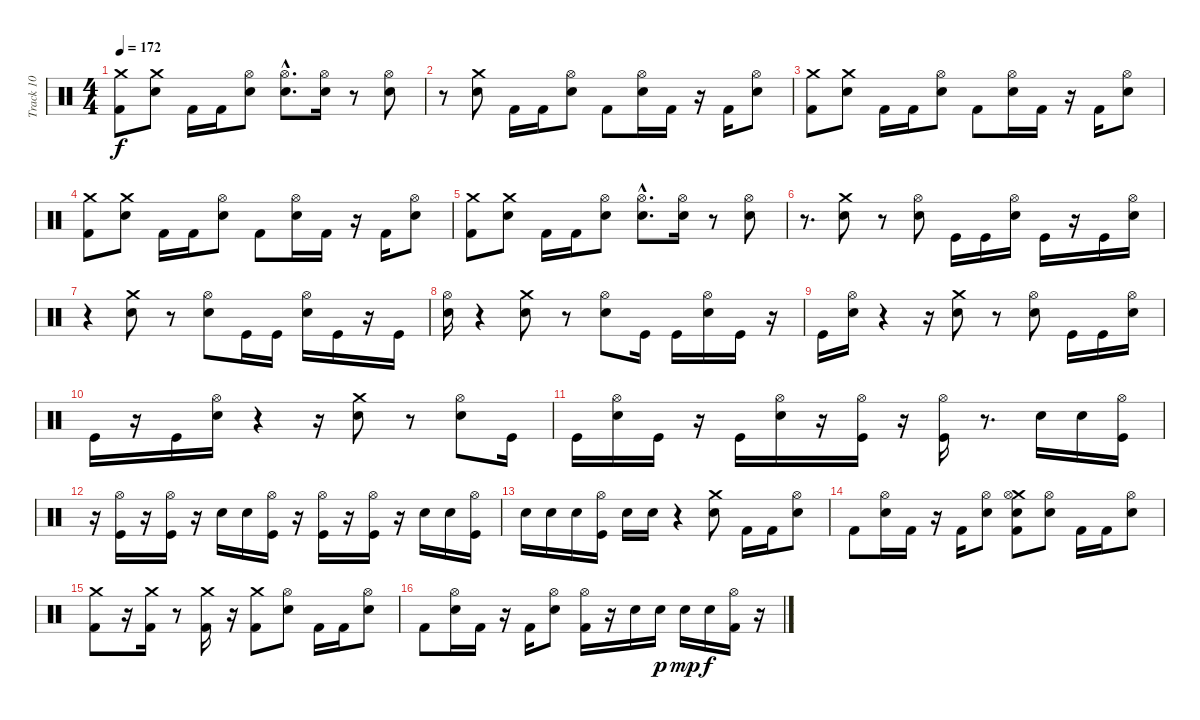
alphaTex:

\track ("Track 10" "Track 10") {instrument percussion}
\staff {score}
\articulation defaults
\ts (4 4)
\tempo 172
\clef neutral
\ks c
("Crash medium (hit)" "Kick (hit) 2").8{dy f} ("Crash medium (hit)" "Electric Snare (hit)").8 "Kick (hit) 2".16 "Kick (hit) 2".16 ("Hi-Hat (open)" "Electric Snare (hit)").8 ("Hi-Hat (open)" "Electric Snare (hit)"{hac}).8{d} ("Hi-Hat (open)" "Electric Snare (hit)").16 r.8 ("Hi-Hat (open)" "Electric Snare (hit)").8 |
r.8 ("Crash medium (hit)" "Electric Snare (hit)").8 "Kick (hit) 2".16 "Kick (hit) 2".16 ("Hi-Hat (open)" "Electric Snare (hit)").8 "Kick (hit) 2".8 ("Hi-Hat (open)" "Electric Snare (hit)").16 "Kick (hit) 2".16 r.16 "Kick (hit) 2".16 ("Hi-Hat (open)" "Electric Snare (hit)").8 |
("Crash medium (hit)" "Kick (hit) 2").8 ("Crash medium (hit)" "Electric Snare (hit)").8 "Kick (hit) 2".16 "Kick (hit) 2".16 ("Hi-Hat (open)" "Electric Snare (hit)").8 "Kick (hit) 2".8 ("Hi-Hat (open)" "Electric Snare (hit)").16 "Kick (hit) 2".16 r.16 "Kick (hit) 2".16 ("Hi-Hat (open)" "Electric Snare (hit)").8 |
("Crash medium (hit)" "Kick (hit) 2").8 ("Crash medium (hit)" "Electric Snare (hit)").8 "Kick (hit) 2".16 "Kick (hit) 2".16 ("Hi-Hat (open)" "Electric Snare (hit)").8 "Kick (hit) 2".8 ("Hi-Hat (open)" "Electric Snare (hit)").16 "Kick (hit) 2".16 r.16 "Kick (hit) 2".16 ("Hi-Hat (open)" "Electric Snare (hit)").8 |
("Crash medium (hit)" "Kick (hit) 2").8 ("Crash medium (hit)" "Electric Snare (hit)").8 "Kick (hit) 2".16 "Kick (hit) 2".16 ("Hi-Hat (open)" "Electric Snare (hit)").8 ("Hi-Hat (open)" "Electric Snare (hit)"{hac}).8{d} ("Hi-Hat (open)" "Electric Snare (hit)").16 r.8 ("Hi-Hat (open)" "Electric Snare (hit)").8 |
r.8{d} ("Crash medium (hit)" "Electric Snare (hit)").8 r.8 ("Hi-Hat (open)" "Electric Snare (hit)").8 "Kick (hit)".16 "Kick (hit)".16 ("Hi-Hat (open)" "Electric Snare (hit)").16 "Kick (hit)".16 r.16 "Kick (hit)".16 ("Hi-Hat (open)" "Electric Snare (hit)").16 |
r.4 ("Crash medium (hit)" "Electric Snare (hit)").8 r.8 ("Hi-Hat (open)" "Electric Snare (hit)").8 "Kick (hit)".16 "Kick (hit)".16 ("Hi-Hat (open)" "Electric Snare (hit)").16 "Kick (hit)".16 r.16 "Kick (hit)".16 |
("Hi-Hat (open)" "Electric Snare (hit)").16 r.4 ("Crash medium (hit)" "Electric Snare (hit)").8 r.8 ("Hi-Hat (open)" "Electric Snare (hit)").8 "Kick (hit)".16 "Kick (hit)".16 ("Hi-Hat (open)" "Electric Snare (hit)").16 "Kick (hit)".16 r.16 |
"Kick (hit)".16 ("Hi-Hat (open)" "Electric Snare (hit)").16 r.4 r.16 ("Crash medium (hit)" "Electric Snare (hit)").8 r.8 ("Hi-Hat (open)" "Electric Snare (hit)").8 "Kick (hit)".16 "Kick (hit)".16 ("Hi-Hat (open)" "Electric Snare (hit)").16 |
"Kick (hit)".16 r.16 "Kick (hit)".16 ("Hi-Hat (open)" "Electric Snare (hit)").16 r.4 r.16 ("Crash medium (hit)" "Electric Snare (hit)").8 r.8 ("Hi-Hat (open)" "Electric Snare (hit)").8 "Kick (hit)".16 |
"Kick (hit)".16 ("Hi-Hat (open)" "Electric Snare (hit)").16 "Kick (hit)".16 r.16 "Kick (hit)".16 ("Hi-Hat (open)" "Electric Snare (hit)").16 r.16 ("Hi-Hat (open)" "Kick (hit)").16 r.16 ("Hi-Hat (open)" "Kick (hit)").16 r.8{d} "Electric Snare (hit)".16 "Electric Snare (hit)".16 ("Hi-Hat (open)" "Kick (hit)").16 |
r.16 ("Hi-Hat (open)" "Kick (hit)").16 r.16 ("Hi-Hat (open)" "Kick (hit)").16 r.16 "Electric Snare (hit)".16 "Electric Snare (hit)".16 ("Hi-Hat (open)" "Kick (hit)").16 r.16 ("Hi-Hat (open)" "Kick (hit)").16 r.16 ("Hi-Hat (open)" "Kick (hit)").16 r.16 "Electric Snare (hit)".16 "Electric Snare (hit)".16 ("Hi-Hat (open)" "Kick (hit)").16 |
"Electric Snare (hit)".16 "Electric Snare (hit)".16 "Electric Snare (hit)".16 ("Hi-Hat (open)" "Kick (hit)").16 "Electric Snare (hit)".16 "Electric Snare (hit)".16 r.4 ("Crash medium (hit)" "Electric Snare (hit)").8 "Kick (hit) 2".16 "Kick (hit) 2".16 ("Hi-Hat (open)" "Electric Snare (hit)").8 |
"Kick (hit) 2".8 ("Hi-Hat (open)" "Electric Snare (hit)").16 "Kick (hit) 2".16 r.16 "Kick (hit) 2".16 ("Hi-Hat (open)" "Electric Snare (hit)").8 ("Crash medium (hit)" "Kick (hit) 2" "Hi-Hat (open)" "Electric Snare (hit)").8 ("Hi-Hat (open)" "Electric Snare (hit)").8 "Kick (hit) 2".16 "Kick (hit) 2".16 ("Hi-Hat (open)" "Electric Snare (hit)").8 |
("Crash medium (hit)" "Kick (hit) 2").8 r.16 ("Crash medium (hit)" "Kick (hit) 2").16 r.8 ("Crash medium (hit)" "Kick (hit) 2").16 r.16 ("Crash medium (hit)" "Kick (hit) 2").8 ("Hi-Hat (open)" "Electric Snare (hit)").8 "Kick (hit) 2".16 "Kick (hit) 2".16 ("Hi-Hat (open)" "Electric Snare (hit)").8 |
"Kick (hit) 2".8 ("Hi-Hat (open)" "Electric Snare (hit)").16 "Kick (hit) 2".16 r.16 "Kick (hit) 2".16 ("Hi-Hat (open)" "Electric Snare (hit)").8 ("Hi-Hat (open)" "Kick (hit) 2").16 r.16 "Electric Snare (hit)".16 "Electric Snare (hit)".16{dy p} "Electric Snare (hit)".16{dy mp} "Electric Snare (hit)".16{dy f} ("Hi-Hat (open)" "Kick (hit) 2").16 r.16
